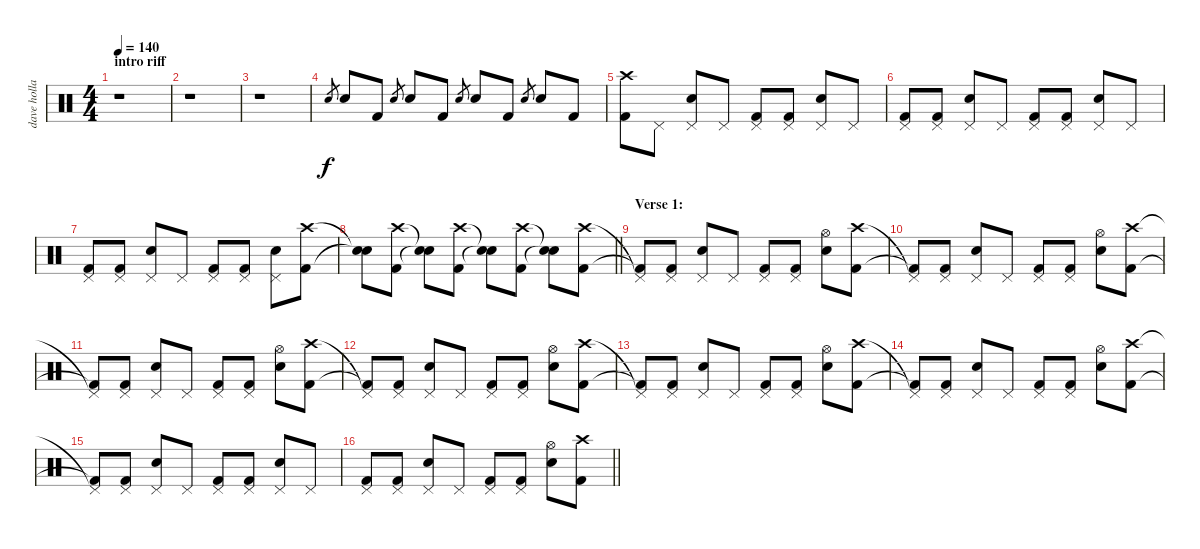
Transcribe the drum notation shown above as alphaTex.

\track ("dave holland" "dave holla") {instrument percussion}
\staff {score}
\articulation defaults
\ts (4 4)
\section ("" "intro riff")
\tempo 140
\clef neutral
\ks c
r.1{dy f} |
r.1 |
r.1 |
"Snare (hit) 2".8{gr} "Snare (hit) 2".8 "Kick (hit) 2".8 "Snare (hit) 2".8{gr} "Snare (hit) 2".8 "Kick (hit) 2".8 "Snare (hit) 2".8{gr} "Snare (hit) 2".8 "Kick (hit) 2".8 "Snare (hit) 2".8{gr} "Snare (hit) 2".8 "Kick (hit) 2".8 |
("Crash high (hit)" "Kick (hit) 2").8 "Pedal Hi-Hat (hit)".8 ("Pedal Hi-Hat (hit)" "Snare (hit) 2").8 "Pedal Hi-Hat (hit)".8 ("Pedal Hi-Hat (hit)" "Kick (hit) 2").8 ("Pedal Hi-Hat (hit)" "Kick (hit) 2").8 ("Pedal Hi-Hat (hit)" "Snare (hit) 2").8 "Pedal Hi-Hat (hit)".8 |
("Pedal Hi-Hat (hit)" "Kick (hit) 2").8 ("Pedal Hi-Hat (hit)" "Kick (hit) 2").8 ("Pedal Hi-Hat (hit)" "Snare (hit) 2").8 "Pedal Hi-Hat (hit)".8 ("Pedal Hi-Hat (hit)" "Kick (hit) 2").8 ("Pedal Hi-Hat (hit)" "Kick (hit) 2").8 ("Pedal Hi-Hat (hit)" "Snare (hit) 2").8 "Pedal Hi-Hat (hit)".8 |
("Pedal Hi-Hat (hit)" "Kick (hit) 2").8 ("Pedal Hi-Hat (hit)" "Kick (hit) 2").8 ("Pedal Hi-Hat (hit)" "Snare (hit) 2").8 "Pedal Hi-Hat (hit)".8 ("Pedal Hi-Hat (hit)" "Kick (hit) 2").8 ("Pedal Hi-Hat (hit)" "Kick (hit) 2").8 ("Pedal Hi-Hat (hit)" "Snare (hit) 2").8 ("Crash high (hit)" "Kick (hit) 2").8 |
\barLineRight lightlight
("Snare (hit)"{t} "Snare (hit)"{t}).8 ("Crash high (hit)" "Kick (hit) 2").8 ("Snare (hit)"{t} "Snare (hit)"{t}).8 ("Crash high (hit)" "Kick (hit) 2").8 ("Snare (hit)"{t} "Snare (hit)"{t}).8 ("Crash high (hit)" "Kick (hit) 2").8 ("Snare (hit)"{t} "Snare (hit)"{t}).8 ("Crash high (hit)" "Kick (hit) 2").8 |
\section ("" "Verse 1:")
("Pedal Hi-Hat (hit)"{t} "Kick (hit) 2"{t}).8 ("Pedal Hi-Hat (hit)" "Kick (hit) 2").8 ("Pedal Hi-Hat (hit)" "Snare (hit) 2").8 "Pedal Hi-Hat (hit)".8 ("Pedal Hi-Hat (hit)" "Kick (hit) 2").8 ("Pedal Hi-Hat (hit)" "Kick (hit) 2").8 ("Hi-Hat (open)" "Snare (hit) 2").8 ("Crash high (hit)" "Kick (hit) 2").8 |
("Pedal Hi-Hat (hit)"{t} "Kick (hit) 2"{t}).8 ("Pedal Hi-Hat (hit)" "Kick (hit) 2").8 ("Pedal Hi-Hat (hit)" "Snare (hit) 2").8 "Pedal Hi-Hat (hit)".8 ("Pedal Hi-Hat (hit)" "Kick (hit) 2").8 ("Pedal Hi-Hat (hit)" "Kick (hit) 2").8 ("Hi-Hat (open)" "Snare (hit) 2").8 ("Crash high (hit)" "Kick (hit) 2").8 |
("Pedal Hi-Hat (hit)"{t} "Kick (hit) 2"{t}).8 ("Pedal Hi-Hat (hit)" "Kick (hit) 2").8 ("Pedal Hi-Hat (hit)" "Snare (hit) 2").8 "Pedal Hi-Hat (hit)".8 ("Pedal Hi-Hat (hit)" "Kick (hit) 2").8 ("Pedal Hi-Hat (hit)" "Kick (hit) 2").8 ("Hi-Hat (open)" "Snare (hit) 2").8 ("Crash high (hit)" "Kick (hit) 2").8 |
("Pedal Hi-Hat (hit)"{t} "Kick (hit) 2"{t}).8 ("Pedal Hi-Hat (hit)" "Kick (hit) 2").8 ("Pedal Hi-Hat (hit)" "Snare (hit) 2").8 "Pedal Hi-Hat (hit)".8 ("Pedal Hi-Hat (hit)" "Kick (hit) 2").8 ("Pedal Hi-Hat (hit)" "Kick (hit) 2").8 ("Hi-Hat (open)" "Snare (hit) 2").8 ("Crash high (hit)" "Kick (hit) 2").8 |
("Pedal Hi-Hat (hit)"{t} "Kick (hit) 2"{t}).8 ("Pedal Hi-Hat (hit)" "Kick (hit) 2").8 ("Pedal Hi-Hat (hit)" "Snare (hit) 2").8 "Pedal Hi-Hat (hit)".8 ("Pedal Hi-Hat (hit)" "Kick (hit) 2").8 ("Pedal Hi-Hat (hit)" "Kick (hit) 2").8 ("Hi-Hat (open)" "Snare (hit) 2").8 ("Crash high (hit)" "Kick (hit) 2").8 |
("Pedal Hi-Hat (hit)"{t} "Kick (hit) 2"{t}).8 ("Pedal Hi-Hat (hit)" "Kick (hit) 2").8 ("Pedal Hi-Hat (hit)" "Snare (hit) 2").8 "Pedal Hi-Hat (hit)".8 ("Pedal Hi-Hat (hit)" "Kick (hit) 2").8 ("Pedal Hi-Hat (hit)" "Kick (hit) 2").8 ("Hi-Hat (open)" "Snare (hit) 2").8 ("Crash high (hit)" "Kick (hit) 2").8 |
("Pedal Hi-Hat (hit)"{t} "Kick (hit) 2"{t}).8 ("Pedal Hi-Hat (hit)" "Kick (hit) 2").8 ("Pedal Hi-Hat (hit)" "Snare (hit) 2").8 "Pedal Hi-Hat (hit)".8 ("Pedal Hi-Hat (hit)" "Kick (hit) 2").8 ("Pedal Hi-Hat (hit)" "Kick (hit) 2").8 ("Pedal Hi-Hat (hit)" "Snare (hit) 2").8 "Pedal Hi-Hat (hit)".8 |
\barLineRight lightlight
("Pedal Hi-Hat (hit)" "Kick (hit) 2").8 ("Pedal Hi-Hat (hit)" "Kick (hit) 2").8 ("Pedal Hi-Hat (hit)" "Snare (hit) 2").8 "Pedal Hi-Hat (hit)".8 ("Pedal Hi-Hat (hit)" "Kick (hit) 2").8 ("Pedal Hi-Hat (hit)" "Kick (hit) 2").8 ("Hi-Hat (open)" "Snare (hit) 2").8 ("Crash high (hit)" "Kick (hit) 2").8
